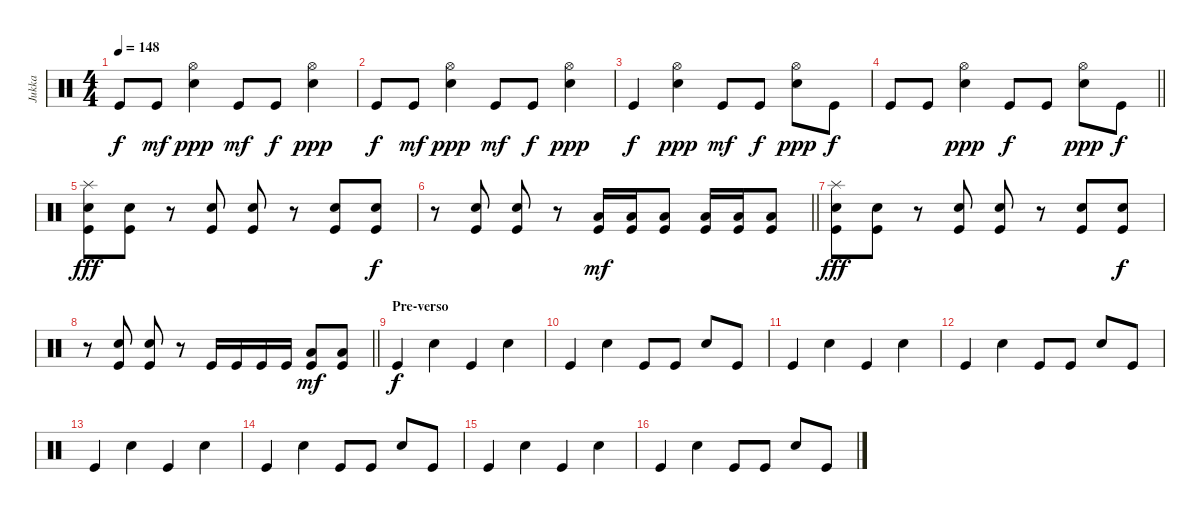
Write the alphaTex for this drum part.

\track ("Jukka" "Jukka") {instrument percussion}
\staff {score}
\articulation defaults
\ts (4 4)
\tempo 148
\clef neutral
\ks c "Kick (hit)".8{dy f} "Kick (hit)".8{dy mf}
("Snare (hit) 2" "Hi-Hat (open)").4{dy ppp} "Kick (hit)".8{dy mf} "Kick (hit)".8{dy f} ("Snare (hit) 2" "Hi-Hat (open)").4{dy ppp} |
"Kick (hit)".8{dy f} "Kick (hit)".8{dy mf} ("Snare (hit) 2" "Hi-Hat (open)").4{dy ppp} "Kick (hit)".8{dy mf} "Kick (hit)".8{dy f} ("Snare (hit) 2" "Hi-Hat (open)").4{dy ppp} |
"Kick (hit)".4{dy f} ("Snare (hit) 2" "Hi-Hat (open)").4{dy ppp} "Kick (hit)".8{dy mf} "Kick (hit)".8{dy f} ("Snare (hit) 2" "Hi-Hat (open)").8{dy ppp} "Kick (hit)".8{dy f} |
\barLineRight lightlight "Kick (hit)".8 "Kick (hit)".8
("Snare (hit) 2" "Hi-Hat (open)").4{dy ppp} "Kick (hit)".8{dy f} "Kick (hit)".8 ("Snare (hit) 2" "Hi-Hat (open)").8{dy ppp} "Kick (hit)".8{dy f} |
("Kick (hit)" "Snare (hit) 2" "Splash (hit)").8{dy fff} ("Kick (hit)" "Snare (hit) 2").8 r.8 ("Kick (hit)" "Snare (hit) 2").8 ("Kick (hit)" "Snare (hit) 2").8 r.8 ("Kick (hit)" "Snare (hit) 2").8 ("Kick (hit)" "Snare (hit) 2").8{dy f} |
\barLineRight lightlight
r.8 ("Kick (hit)" "Snare (hit) 2").8 ("Kick (hit)" "Snare (hit) 2").8 r.8 ("Kick (hit)" "Low Floor Tom (hit)").16{dy mf} ("Kick (hit)" "Low Floor Tom (hit)").16 ("Kick (hit)" "Low Floor Tom (hit)").8 ("Kick (hit)" "Low Floor Tom (hit)").16 ("Kick (hit)" "Low Floor Tom (hit)").16 ("Kick (hit)" "Low Floor Tom (hit)").8 |
("Kick (hit)" "Snare (hit) 2" "Splash (hit)").8{dy fff} ("Kick (hit)" "Snare (hit) 2").8 r.8 ("Kick (hit)" "Snare (hit) 2").8 ("Kick (hit)" "Snare (hit) 2").8 r.8 ("Kick (hit)" "Snare (hit) 2").8 ("Kick (hit)" "Snare (hit) 2").8{dy f} |
\barLineRight lightlight
r.8 ("Kick (hit)" "Snare (hit) 2").8 ("Kick (hit)" "Snare (hit) 2").8 r.8 "Kick (hit)".16 "Kick (hit)".16 "Kick (hit)".16 "Kick (hit)".16 ("Kick (hit)" "Low Floor Tom (hit)").8{dy mf} ("Kick (hit)" "Low Floor Tom (hit)").8 |
\section ("" "Pre-verso")
"Kick (hit)".4{dy f} "Snare (hit) 2".4 "Kick (hit)".4 "Snare (hit) 2".4 |
"Kick (hit)".4 "Snare (hit) 2".4 "Kick (hit)".8 "Kick (hit)".8 "Snare (hit) 2".8 "Kick (hit)".8 |
"Kick (hit)".4 "Snare (hit) 2".4 "Kick (hit)".4 "Snare (hit) 2".4 |
"Kick (hit)".4 "Snare (hit) 2".4 "Kick (hit)".8 "Kick (hit)".8 "Snare (hit) 2".8 "Kick (hit)".8 |
"Kick (hit)".4 "Snare (hit) 2".4 "Kick (hit)".4 "Snare (hit) 2".4 |
"Kick (hit)".4 "Snare (hit) 2".4 "Kick (hit)".8 "Kick (hit)".8 "Snare (hit) 2".8 "Kick (hit)".8 |
"Kick (hit)".4 "Snare (hit) 2".4 "Kick (hit)".4 "Snare (hit) 2".4 |
"Kick (hit)".4 "Snare (hit) 2".4 "Kick (hit)".8 "Kick (hit)".8 "Snare (hit) 2".8 "Kick (hit)".8
